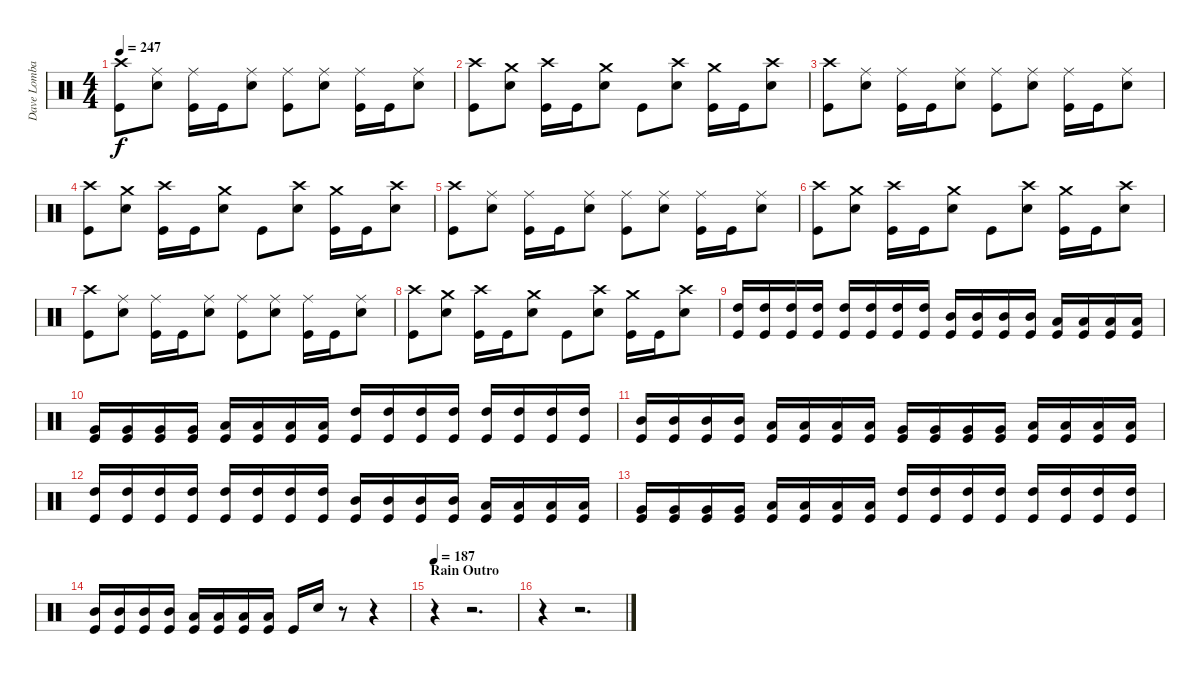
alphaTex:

\track ("Dave Lombardo" "Dave Lomba") {instrument percussion}
\staff {score}
\articulation defaults
\ts (4 4)
\tempo 247
\clef neutral
\ks c
("Crash high (hit)" "Kick (hit)").8{dy f} ("Ride (middle)" "Snare (hit) 2").8 ("Ride (middle)" "Kick (hit)").16 "Kick (hit)".16 ("Ride (middle)" "Snare (hit) 2").8 ("Ride (middle)" "Kick (hit)").8 ("Ride (middle)" "Snare (hit) 2").8 ("Ride (middle)" "Kick (hit)").16 "Kick (hit)".16 ("Ride (middle)" "Snare (hit) 2").8 |
("Crash high (hit)" "Kick (hit)").8 ("Crash medium (hit)" "Snare (hit) 2").8 ("Crash high (hit)" "Kick (hit)").16 "Kick (hit)".16 ("Crash medium (hit)" "Snare (hit) 2").8 "Kick (hit)".8 ("Crash high (hit)" "Snare (hit) 2").8 ("Crash medium (hit)" "Kick (hit)").16 "Kick (hit)".16 ("Crash high (hit)" "Snare (hit) 2").8 |
("Crash high (hit)" "Kick (hit)").8 ("Ride (middle)" "Snare (hit) 2").8 ("Ride (middle)" "Kick (hit)").16 "Kick (hit)".16 ("Ride (middle)" "Snare (hit) 2").8 ("Ride (middle)" "Kick (hit)").8 ("Ride (middle)" "Snare (hit) 2").8 ("Ride (middle)" "Kick (hit)").16 "Kick (hit)".16 ("Ride (middle)" "Snare (hit) 2").8 |
("Crash high (hit)" "Kick (hit)").8 ("Crash medium (hit)" "Snare (hit) 2").8 ("Crash high (hit)" "Kick (hit)").16 "Kick (hit)".16 ("Crash medium (hit)" "Snare (hit) 2").8 "Kick (hit)".8 ("Crash high (hit)" "Snare (hit) 2").8 ("Crash medium (hit)" "Kick (hit)").16 "Kick (hit)".16 ("Crash high (hit)" "Snare (hit) 2").8 |
("Crash high (hit)" "Kick (hit)").8 ("Ride (middle)" "Snare (hit) 2").8 ("Ride (middle)" "Kick (hit)").16 "Kick (hit)".16 ("Ride (middle)" "Snare (hit) 2").8 ("Ride (middle)" "Kick (hit)").8 ("Ride (middle)" "Snare (hit) 2").8 ("Ride (middle)" "Kick (hit)").16 "Kick (hit)".16 ("Ride (middle)" "Snare (hit) 2").8 |
("Crash high (hit)" "Kick (hit)").8 ("Crash medium (hit)" "Snare (hit) 2").8 ("Crash high (hit)" "Kick (hit)").16 "Kick (hit)".16 ("Crash medium (hit)" "Snare (hit) 2").8 "Kick (hit)".8 ("Crash high (hit)" "Snare (hit) 2").8 ("Crash medium (hit)" "Kick (hit)").16 "Kick (hit)".16 ("Crash high (hit)" "Snare (hit) 2").8 |
("Crash high (hit)" "Kick (hit)").8 ("Ride (middle)" "Snare (hit) 2").8 ("Ride (middle)" "Kick (hit)").16 "Kick (hit)".16 ("Ride (middle)" "Snare (hit) 2").8 ("Ride (middle)" "Kick (hit)").8 ("Ride (middle)" "Snare (hit) 2").8 ("Ride (middle)" "Kick (hit)").16 "Kick (hit)".16 ("Ride (middle)" "Snare (hit) 2").8 |
("Crash high (hit)" "Kick (hit)").8 ("Crash medium (hit)" "Snare (hit) 2").8 ("Crash high (hit)" "Kick (hit)").16 "Kick (hit)".16 ("Crash medium (hit)" "Snare (hit) 2").8 "Kick (hit)".8 ("Crash high (hit)" "Snare (hit) 2").8 ("Crash medium (hit)" "Kick (hit)").16 "Kick (hit)".16 ("Crash high (hit)" "Snare (hit) 2").8 |
("High Tom (hit)" "Kick (hit)").16 ("High Tom (hit)" "Kick (hit)").16 ("High Tom (hit)" "Kick (hit)").16 ("High Tom (hit)" "Kick (hit)").16 ("High Tom (hit)" "Kick (hit)").16 ("High Tom (hit)" "Kick (hit)").16 ("High Tom (hit)" "Kick (hit)").16 ("High Tom (hit)" "Kick (hit)").16 ("Mid Tom (hit)" "Kick (hit)").16 ("Mid Tom (hit)" "Kick (hit)").16 ("Mid Tom (hit)" "Kick (hit)").16 ("Mid Tom (hit)" "Kick (hit)").16 ("Low Tom (hit)" "Kick (hit)").16 ("Low Tom (hit)" "Kick (hit)").16 ("Low Tom (hit)" "Kick (hit)").16 ("Low Tom (hit)" "Kick (hit)").16 |
("Very Low Tom (hit)" "Kick (hit)").16 ("Very Low Tom (hit)" "Kick (hit)").16 ("Very Low Tom (hit)" "Kick (hit)").16 ("Very Low Tom (hit)" "Kick (hit)").16 ("Low Floor Tom (hit)" "Kick (hit)").16 ("Low Floor Tom (hit)" "Kick (hit)").16 ("Low Floor Tom (hit)" "Kick (hit)").16 ("Low Floor Tom (hit)" "Kick (hit)").16 ("High Tom (hit)" "Kick (hit)").16 ("High Tom (hit)" "Kick (hit)").16 ("High Tom (hit)" "Kick (hit)").16 ("High Tom (hit)" "Kick (hit)").16 ("High Tom (hit)" "Kick (hit)").16 ("High Tom (hit)" "Kick (hit)").16 ("High Tom (hit)" "Kick (hit)").16 ("High Tom (hit)" "Kick (hit)").16 |
("Mid Tom (hit)" "Kick (hit)").16 ("Mid Tom (hit)" "Kick (hit)").16 ("Mid Tom (hit)" "Kick (hit)").16 ("Mid Tom (hit)" "Kick (hit)").16 ("Low Tom (hit)" "Kick (hit)").16 ("Low Tom (hit)" "Kick (hit)").16 ("Low Tom (hit)" "Kick (hit)").16 ("Low Tom (hit)" "Kick (hit)").16 ("Very Low Tom (hit)" "Kick (hit)").16 ("Very Low Tom (hit)" "Kick (hit)").16 ("Very Low Tom (hit)" "Kick (hit)").16 ("Very Low Tom (hit)" "Kick (hit)").16 ("Low Floor Tom (hit)" "Kick (hit)").16 ("Low Floor Tom (hit)" "Kick (hit)").16 ("Low Floor Tom (hit)" "Kick (hit)").16 ("Low Floor Tom (hit)" "Kick (hit)").16 |
("High Tom (hit)" "Kick (hit)").16 ("High Tom (hit)" "Kick (hit)").16 ("High Tom (hit)" "Kick (hit)").16 ("High Tom (hit)" "Kick (hit)").16 ("High Tom (hit)" "Kick (hit)").16 ("High Tom (hit)" "Kick (hit)").16 ("High Tom (hit)" "Kick (hit)").16 ("High Tom (hit)" "Kick (hit)").16 ("Mid Tom (hit)" "Kick (hit)").16 ("Mid Tom (hit)" "Kick (hit)").16 ("Mid Tom (hit)" "Kick (hit)").16 ("Mid Tom (hit)" "Kick (hit)").16 ("Low Tom (hit)" "Kick (hit)").16 ("Low Tom (hit)" "Kick (hit)").16 ("Low Tom (hit)" "Kick (hit)").16 ("Low Tom (hit)" "Kick (hit)").16 |
("Very Low Tom (hit)" "Kick (hit)").16 ("Very Low Tom (hit)" "Kick (hit)").16 ("Very Low Tom (hit)" "Kick (hit)").16 ("Very Low Tom (hit)" "Kick (hit)").16 ("Low Floor Tom (hit)" "Kick (hit)").16 ("Low Floor Tom (hit)" "Kick (hit)").16 ("Low Floor Tom (hit)" "Kick (hit)").16 ("Low Floor Tom (hit)" "Kick (hit)").16 ("High Tom (hit)" "Kick (hit)").16 ("High Tom (hit)" "Kick (hit)").16 ("High Tom (hit)" "Kick (hit)").16 ("High Tom (hit)" "Kick (hit)").16 ("High Tom (hit)" "Kick (hit)").16 ("High Tom (hit)" "Kick (hit)").16 ("High Tom (hit)" "Kick (hit)").16 ("High Tom (hit)" "Kick (hit)").16 |
("Mid Tom (hit)" "Kick (hit)").16 ("Mid Tom (hit)" "Kick (hit)").16 ("Mid Tom (hit)" "Kick (hit)").16 ("Mid Tom (hit)" "Kick (hit)").16 ("Low Tom (hit)" "Kick (hit)").16 ("Low Tom (hit)" "Kick (hit)").16 ("Low Tom (hit)" "Kick (hit)").16 ("Low Tom (hit)" "Kick (hit)").16 "Kick (hit)".16 "Snare (hit) 2".16 r.8 r.4 |
\section ("" "Rain Outro")
\tempo 187
r.4 r.2{d} |
r.4 r.2{d}
